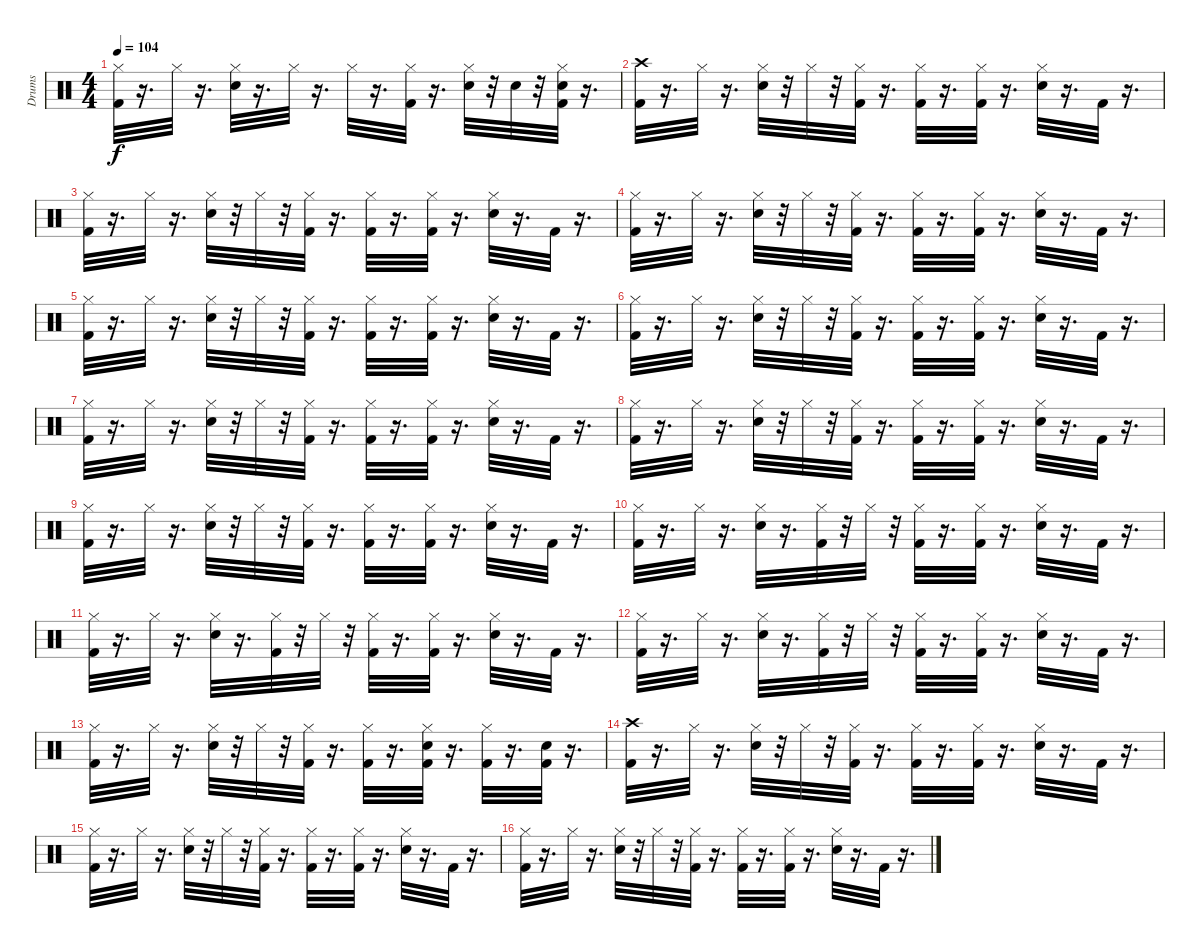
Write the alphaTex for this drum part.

\track ("Drums" "Drums") {instrument percussion}
\staff {score}
\articulation defaults
\ts (4 4)
\tempo 104
\clef neutral
\ks c
("Hi-Hat (closed)" "Kick (hit) 2").32{dy f} r.16{d} "Hi-Hat (closed)".32 r.16{d} ("Hi-Hat (closed)" "Snare (hit) 2").32 r.16{d} "Hi-Hat (closed)".32 r.16{d} "Hi-Hat (closed)".32 r.16{d} ("Kick (hit) 2" "Hi-Hat (closed)").32 r.16{d} ("Snare (hit) 2" "Hi-Hat (closed)").32 r.32 "Snare (hit) 2".32 r.32 ("Snare (hit) 2" "Kick (hit) 2" "Hi-Hat (closed)").32 r.16{d} |
("Crash high (hit)" "Kick (hit) 2").32 r.16{d} "Hi-Hat (closed)".32 r.16{d} ("Hi-Hat (closed)" "Snare (hit) 2").32 r.32 "Hi-Hat (closed)".32 r.32 ("Hi-Hat (closed)" "Kick (hit) 2").32 r.16{d} ("Hi-Hat (closed)" "Kick (hit) 2").32 r.16{d} ("Hi-Hat (closed)" "Kick (hit) 2").32 r.16{d} ("Hi-Hat (closed)" "Snare (hit) 2").32 r.16{d} "Kick (hit) 2".32 r.16{d} |
("Hi-Hat (closed)" "Kick (hit) 2").32 r.16{d} "Hi-Hat (closed)".32 r.16{d} ("Hi-Hat (closed)" "Snare (hit) 2").32 r.32 "Hi-Hat (closed)".32 r.32 ("Hi-Hat (closed)" "Kick (hit) 2").32 r.16{d} ("Hi-Hat (closed)" "Kick (hit) 2").32 r.16{d} ("Hi-Hat (closed)" "Kick (hit) 2").32 r.16{d} ("Hi-Hat (closed)" "Snare (hit) 2").32 r.16{d} "Kick (hit) 2".32 r.16{d} |
("Hi-Hat (closed)" "Kick (hit) 2").32 r.16{d} "Hi-Hat (closed)".32 r.16{d} ("Hi-Hat (closed)" "Snare (hit) 2").32 r.32 "Hi-Hat (closed)".32 r.32 ("Hi-Hat (closed)" "Kick (hit) 2").32 r.16{d} ("Hi-Hat (closed)" "Kick (hit) 2").32 r.16{d} ("Hi-Hat (closed)" "Kick (hit) 2").32 r.16{d} ("Hi-Hat (closed)" "Snare (hit) 2").32 r.16{d} "Kick (hit) 2".32 r.16{d} |
("Hi-Hat (closed)" "Kick (hit) 2").32 r.16{d} "Hi-Hat (closed)".32 r.16{d} ("Hi-Hat (closed)" "Snare (hit) 2").32 r.32 "Hi-Hat (closed)".32 r.32 ("Hi-Hat (closed)" "Kick (hit) 2").32 r.16{d} ("Hi-Hat (closed)" "Kick (hit) 2").32 r.16{d} ("Hi-Hat (closed)" "Kick (hit) 2").32 r.16{d} ("Hi-Hat (closed)" "Snare (hit) 2").32 r.16{d} "Kick (hit) 2".32 r.16{d} |
("Hi-Hat (closed)" "Kick (hit) 2").32 r.16{d} "Hi-Hat (closed)".32 r.16{d} ("Hi-Hat (closed)" "Snare (hit) 2").32 r.32 "Hi-Hat (closed)".32 r.32 ("Hi-Hat (closed)" "Kick (hit) 2").32 r.16{d} ("Hi-Hat (closed)" "Kick (hit) 2").32 r.16{d} ("Hi-Hat (closed)" "Kick (hit) 2").32 r.16{d} ("Hi-Hat (closed)" "Snare (hit) 2").32 r.16{d} "Kick (hit) 2".32 r.16{d} |
("Hi-Hat (closed)" "Kick (hit) 2").32 r.16{d} "Hi-Hat (closed)".32 r.16{d} ("Hi-Hat (closed)" "Snare (hit) 2").32 r.32 "Hi-Hat (closed)".32 r.32 ("Hi-Hat (closed)" "Kick (hit) 2").32 r.16{d} ("Hi-Hat (closed)" "Kick (hit) 2").32 r.16{d} ("Hi-Hat (closed)" "Kick (hit) 2").32 r.16{d} ("Hi-Hat (closed)" "Snare (hit) 2").32 r.16{d} "Kick (hit) 2".32 r.16{d} |
("Hi-Hat (closed)" "Kick (hit) 2").32 r.16{d} "Hi-Hat (closed)".32 r.16{d} ("Hi-Hat (closed)" "Snare (hit) 2").32 r.32 "Hi-Hat (closed)".32 r.32 ("Hi-Hat (closed)" "Kick (hit) 2").32 r.16{d} ("Hi-Hat (closed)" "Kick (hit) 2").32 r.16{d} ("Hi-Hat (closed)" "Kick (hit) 2").32 r.16{d} ("Hi-Hat (closed)" "Snare (hit) 2").32 r.16{d} "Kick (hit) 2".32 r.16{d} |
("Hi-Hat (closed)" "Kick (hit) 2").32 r.16{d} "Hi-Hat (closed)".32 r.16{d} ("Hi-Hat (closed)" "Snare (hit) 2").32 r.32 "Hi-Hat (closed)".32 r.32 ("Hi-Hat (closed)" "Kick (hit) 2").32 r.16{d} ("Hi-Hat (closed)" "Kick (hit) 2").32 r.16{d} ("Hi-Hat (closed)" "Kick (hit) 2").32 r.16{d} ("Hi-Hat (closed)" "Snare (hit) 2").32 r.16{d} "Kick (hit) 2".32 r.16{d} |
("Hi-Hat (closed)" "Kick (hit) 2").32 r.16{d} "Hi-Hat (closed)".32 r.16{d} ("Hi-Hat (closed)" "Snare (hit) 2").32 r.16{d} ("Hi-Hat (closed)" "Kick (hit) 2").32 r.32 "Hi-Hat (closed)".32 r.32 ("Hi-Hat (closed)" "Kick (hit) 2").32 r.16{d} ("Hi-Hat (closed)" "Kick (hit) 2").32 r.16{d} ("Hi-Hat (closed)" "Snare (hit) 2").32 r.16{d} "Kick (hit) 2".32 r.16{d} |
("Hi-Hat (closed)" "Kick (hit) 2").32 r.16{d} "Hi-Hat (closed)".32 r.16{d} ("Hi-Hat (closed)" "Snare (hit) 2").32 r.16{d} ("Hi-Hat (closed)" "Kick (hit) 2").32 r.32 "Hi-Hat (closed)".32 r.32 ("Hi-Hat (closed)" "Kick (hit) 2").32 r.16{d} ("Hi-Hat (closed)" "Kick (hit) 2").32 r.16{d} ("Hi-Hat (closed)" "Snare (hit) 2").32 r.16{d} "Kick (hit) 2".32 r.16{d} |
("Hi-Hat (closed)" "Kick (hit) 2").32 r.16{d} "Hi-Hat (closed)".32 r.16{d} ("Hi-Hat (closed)" "Snare (hit) 2").32 r.16{d} ("Hi-Hat (closed)" "Kick (hit) 2").32 r.32 "Hi-Hat (closed)".32 r.32 ("Hi-Hat (closed)" "Kick (hit) 2").32 r.16{d} ("Hi-Hat (closed)" "Kick (hit) 2").32 r.16{d} ("Hi-Hat (closed)" "Snare (hit) 2").32 r.16{d} "Kick (hit) 2".32 r.16{d} |
("Hi-Hat (closed)" "Kick (hit) 2").32 r.16{d} "Hi-Hat (closed)".32 r.16{d} ("Hi-Hat (closed)" "Snare (hit) 2").32 r.32 "Hi-Hat (closed)".32 r.32 ("Hi-Hat (closed)" "Kick (hit) 2").32 r.16{d} ("Hi-Hat (closed)" "Kick (hit) 2").32 r.16{d} ("Hi-Hat (closed)" "Kick (hit) 2" "Snare (hit) 2").32 r.16{d} ("Kick (hit) 2" "Hi-Hat (closed)").32 r.16{d} ("Kick (hit) 2" "Snare (hit) 2").32 r.16{d} |
("Crash high (hit)" "Kick (hit) 2").32 r.16{d} "Hi-Hat (closed)".32 r.16{d} ("Hi-Hat (closed)" "Snare (hit) 2").32 r.32 "Hi-Hat (closed)".32 r.32 ("Hi-Hat (closed)" "Kick (hit) 2").32 r.16{d} ("Hi-Hat (closed)" "Kick (hit) 2").32 r.16{d} ("Hi-Hat (closed)" "Kick (hit) 2").32 r.16{d} ("Hi-Hat (closed)" "Snare (hit) 2").32 r.16{d} "Kick (hit) 2".32 r.16{d} |
("Hi-Hat (closed)" "Kick (hit) 2").32 r.16{d} "Hi-Hat (closed)".32 r.16{d} ("Hi-Hat (closed)" "Snare (hit) 2").32 r.32 "Hi-Hat (closed)".32 r.32 ("Hi-Hat (closed)" "Kick (hit) 2").32 r.16{d} ("Hi-Hat (closed)" "Kick (hit) 2").32 r.16{d} ("Hi-Hat (closed)" "Kick (hit) 2").32 r.16{d} ("Hi-Hat (closed)" "Snare (hit) 2").32 r.16{d} "Kick (hit) 2".32 r.16{d} |
("Hi-Hat (closed)" "Kick (hit) 2").32 r.16{d} "Hi-Hat (closed)".32 r.16{d} ("Hi-Hat (closed)" "Snare (hit) 2").32 r.32 "Hi-Hat (closed)".32 r.32 ("Hi-Hat (closed)" "Kick (hit) 2").32 r.16{d} ("Hi-Hat (closed)" "Kick (hit) 2").32 r.16{d} ("Hi-Hat (closed)" "Kick (hit) 2").32 r.16{d} ("Hi-Hat (closed)" "Snare (hit) 2").32 r.16{d} "Kick (hit) 2".32 r.16{d}
